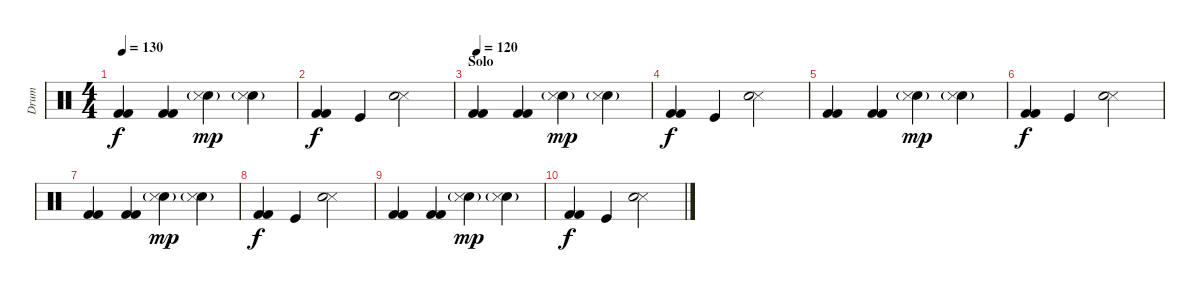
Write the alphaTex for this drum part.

\track ("Drum" "Drum") {instrument percussion}
\staff {score}
\articulation defaults
\ts (4 4)
\tempo 130
\clef neutral
\ks c
("Kick (hit) 2" "Kick (hit) 2").4{dy f} ("Kick (hit) 2" "Kick (hit) 2").4 ("Snare (hit) 2" "Snare (side stick) 3"{g}).4{dy mp} ("Snare (hit) 2"{g} "Snare (side stick) 3").4 |
("Kick (hit) 2" "Kick (hit) 2").4{dy f} "Kick (hit)".4 ("Snare (side stick) 3" "Snare (hit) 2").2 |
\section ("" "Solo")
\tempo 120
("Kick (hit) 2" "Kick (hit) 2").4 ("Kick (hit) 2" "Kick (hit) 2").4 ("Snare (hit) 2" "Snare (side stick) 3"{g}).4{dy mp} ("Snare (hit) 2"{g} "Snare (side stick) 3").4 |
("Kick (hit) 2" "Kick (hit) 2").4{dy f} "Kick (hit)".4 ("Snare (side stick) 3" "Snare (hit) 2").2 |
("Kick (hit) 2" "Kick (hit) 2").4 ("Kick (hit) 2" "Kick (hit) 2").4 ("Snare (hit) 2" "Snare (side stick) 3"{g}).4{dy mp} ("Snare (hit) 2"{g} "Snare (side stick) 3").4 |
("Kick (hit) 2" "Kick (hit) 2").4{dy f} "Kick (hit)".4 ("Snare (side stick) 3" "Snare (hit) 2").2 |
("Kick (hit) 2" "Kick (hit) 2").4 ("Kick (hit) 2" "Kick (hit) 2").4 ("Snare (hit) 2" "Snare (side stick) 3"{g}).4{dy mp} ("Snare (hit) 2"{g} "Snare (side stick) 3").4 |
("Kick (hit) 2" "Kick (hit) 2").4{dy f} "Kick (hit)".4 ("Snare (side stick) 3" "Snare (hit) 2").2 |
("Kick (hit) 2" "Kick (hit) 2").4 ("Kick (hit) 2" "Kick (hit) 2").4 ("Snare (hit) 2" "Snare (side stick) 3"{g}).4{dy mp} ("Snare (hit) 2"{g} "Snare (side stick) 3").4 |
("Kick (hit) 2" "Kick (hit) 2").4{dy f} "Kick (hit)".4 ("Snare (side stick) 3" "Snare (hit) 2").2
